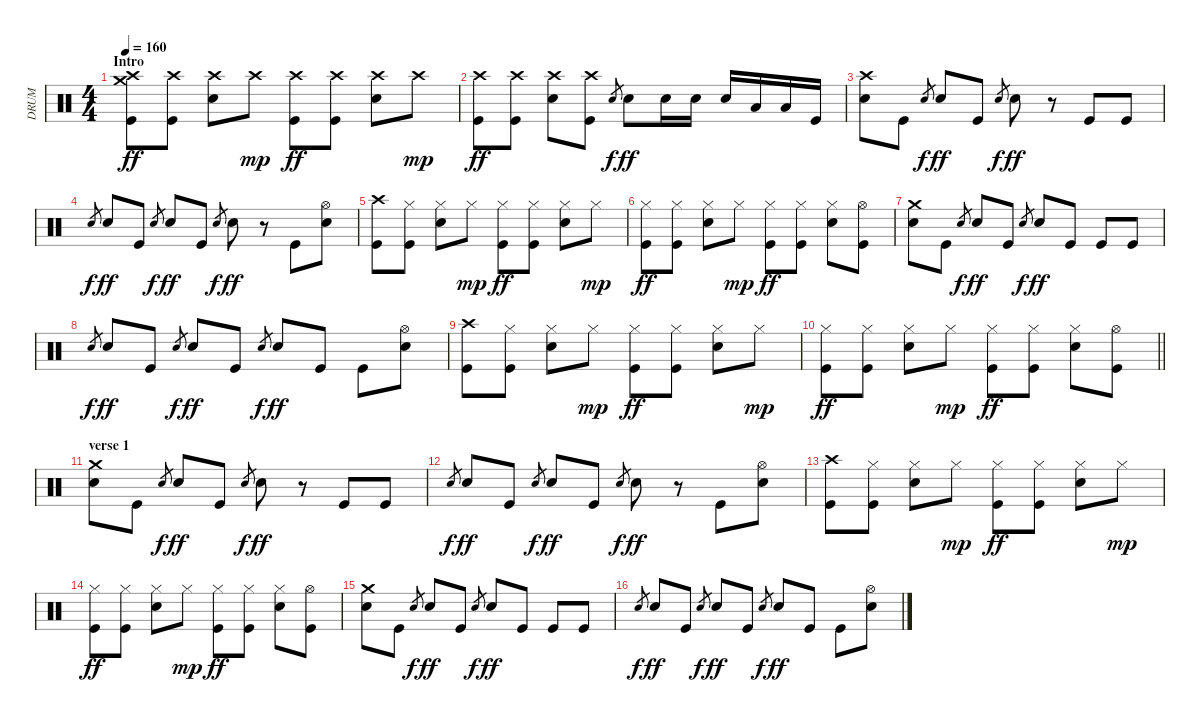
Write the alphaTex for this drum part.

\track ("DRUM" "DRUM") {instrument percussion}
\staff {score}
\articulation defaults
\ts (4 4)
\section ("" "Intro")
\tempo 160
\clef neutral
\ks c
("Crash high (hit)" "Crash medium (hit)" "Kick (hit)").8{dy ff} ("Crash high (hit)" "Kick (hit)").8 ("Crash high (hit)" "Electric Snare (hit)").8 "Crash high (hit)".8{dy mp} ("Crash high (hit)" "Kick (hit)").8{dy ff} ("Crash high (hit)" "Kick (hit)").8 ("Crash high (hit)" "Electric Snare (hit)").8 "Crash high (hit)".8{dy mp} |
("Crash high (hit)" "Kick (hit)").8{dy ff} ("Crash high (hit)" "Kick (hit)").8 ("Crash high (hit)" "Electric Snare (hit)").8 ("Crash high (hit)" "Kick (hit)").8 "Electric Snare (hit)".8{gr dy f} "Electric Snare (hit)".8{dy ff} "Electric Snare (hit)".16 "Electric Snare (hit)".16 "Electric Snare (hit)".16 "Low Tom (hit)".16 "Low Tom (hit)".16 "Kick (hit)".16 |
("Crash high (hit)" "Electric Snare (hit)").8 "Kick (hit)".8 "Electric Snare (hit)".8{gr dy f} "Electric Snare (hit)".8{dy ff} "Kick (hit)".8 "Electric Snare (hit)".8{gr dy f} "Electric Snare (hit)".8{dy ff} r.8 "Kick (hit)".8 "Kick (hit)".8 |
"Electric Snare (hit)".8{gr dy f} "Electric Snare (hit)".8{dy ff} "Kick (hit)".8 "Electric Snare (hit)".8{gr dy f} "Electric Snare (hit)".8{dy ff} "Kick (hit)".8 "Electric Snare (hit)".8{gr dy f} "Electric Snare (hit)".8{dy ff} r.8 "Kick (hit)".8 ("Hi-Hat (open)" "Electric Snare (hit)").8 |
("Crash high (hit)" "Kick (hit)").8 ("Hi-Hat (closed)" "Kick (hit)").8 ("Hi-Hat (closed)" "Electric Snare (hit)").8 "Hi-Hat (closed)".8{dy mp} ("Hi-Hat (closed)" "Kick (hit)").8{dy ff} ("Hi-Hat (closed)" "Kick (hit)").8 ("Hi-Hat (closed)" "Electric Snare (hit)").8 "Hi-Hat (closed)".8{dy mp} |
("Hi-Hat (closed)" "Kick (hit)").8{dy ff} ("Hi-Hat (closed)" "Kick (hit)").8 ("Hi-Hat (closed)" "Electric Snare (hit)").8 "Hi-Hat (closed)".8{dy mp} ("Hi-Hat (closed)" "Kick (hit)").8{dy ff} ("Hi-Hat (closed)" "Kick (hit)").8 ("Hi-Hat (closed)" "Electric Snare (hit)").8 ("Hi-Hat (open)" "Kick (hit)").8 |
("Crash medium (hit)" "Electric Snare (hit)").8 "Kick (hit)".8 "Electric Snare (hit)".8{gr dy f} "Electric Snare (hit)".8{dy ff} "Kick (hit)".8 "Electric Snare (hit)".8{gr dy f} "Electric Snare (hit)".8{dy ff} "Kick (hit)".8 "Kick (hit)".8 "Kick (hit)".8 |
"Electric Snare (hit)".8{gr dy f} "Electric Snare (hit)".8{dy ff} "Kick (hit)".8 "Electric Snare (hit)".8{gr dy f} "Electric Snare (hit)".8{dy ff} "Kick (hit)".8 "Electric Snare (hit)".8{gr dy f} "Electric Snare (hit)".8{dy ff} "Kick (hit)".8 "Kick (hit)".8 ("Hi-Hat (open)" "Electric Snare (hit)").8 |
("Crash high (hit)" "Kick (hit)").8 ("Hi-Hat (closed)" "Kick (hit)").8 ("Hi-Hat (closed)" "Electric Snare (hit)").8 "Hi-Hat (closed)".8{dy mp} ("Hi-Hat (closed)" "Kick (hit)").8{dy ff} ("Hi-Hat (closed)" "Kick (hit)").8 ("Hi-Hat (closed)" "Electric Snare (hit)").8 "Hi-Hat (closed)".8{dy mp} |
\barLineRight lightlight
("Hi-Hat (closed)" "Kick (hit)").8{dy ff} ("Hi-Hat (closed)" "Kick (hit)").8 ("Hi-Hat (closed)" "Electric Snare (hit)").8 "Hi-Hat (closed)".8{dy mp} ("Hi-Hat (closed)" "Kick (hit)").8{dy ff} ("Hi-Hat (closed)" "Kick (hit)").8 ("Hi-Hat (closed)" "Electric Snare (hit)").8 ("Hi-Hat (open)" "Kick (hit)").8 |
\section ("" "verse 1")
("Crash medium (hit)" "Electric Snare (hit)").8 "Kick (hit)".8 "Electric Snare (hit)".8{gr dy f} "Electric Snare (hit)".8{dy ff} "Kick (hit)".8 "Electric Snare (hit)".8{gr dy f} "Electric Snare (hit)".8{dy ff} r.8 "Kick (hit)".8 "Kick (hit)".8 |
"Electric Snare (hit)".8{gr dy f} "Electric Snare (hit)".8{dy ff} "Kick (hit)".8 "Electric Snare (hit)".8{gr dy f} "Electric Snare (hit)".8{dy ff} "Kick (hit)".8 "Electric Snare (hit)".8{gr dy f} "Electric Snare (hit)".8{dy ff} r.8 "Kick (hit)".8 ("Hi-Hat (open)" "Electric Snare (hit)").8 |
("Crash high (hit)" "Kick (hit)").8 ("Hi-Hat (closed)" "Kick (hit)").8 ("Hi-Hat (closed)" "Electric Snare (hit)").8 "Hi-Hat (closed)".8{dy mp} ("Hi-Hat (closed)" "Kick (hit)").8{dy ff} ("Hi-Hat (closed)" "Kick (hit)").8 ("Hi-Hat (closed)" "Electric Snare (hit)").8 "Hi-Hat (closed)".8{dy mp} |
("Hi-Hat (closed)" "Kick (hit)").8{dy ff} ("Hi-Hat (closed)" "Kick (hit)").8 ("Hi-Hat (closed)" "Electric Snare (hit)").8 "Hi-Hat (closed)".8{dy mp} ("Hi-Hat (closed)" "Kick (hit)").8{dy ff} ("Hi-Hat (closed)" "Kick (hit)").8 ("Hi-Hat (closed)" "Electric Snare (hit)").8 ("Hi-Hat (open)" "Kick (hit)").8 |
("Crash medium (hit)" "Electric Snare (hit)").8 "Kick (hit)".8 "Electric Snare (hit)".8{gr dy f} "Electric Snare (hit)".8{dy ff} "Kick (hit)".8 "Electric Snare (hit)".8{gr dy f} "Electric Snare (hit)".8{dy ff} "Kick (hit)".8 "Kick (hit)".8 "Kick (hit)".8 |
"Electric Snare (hit)".8{gr dy f} "Electric Snare (hit)".8{dy ff} "Kick (hit)".8 "Electric Snare (hit)".8{gr dy f} "Electric Snare (hit)".8{dy ff} "Kick (hit)".8 "Electric Snare (hit)".8{gr dy f} "Electric Snare (hit)".8{dy ff} "Kick (hit)".8 "Kick (hit)".8 ("Hi-Hat (open)" "Electric Snare (hit)").8
